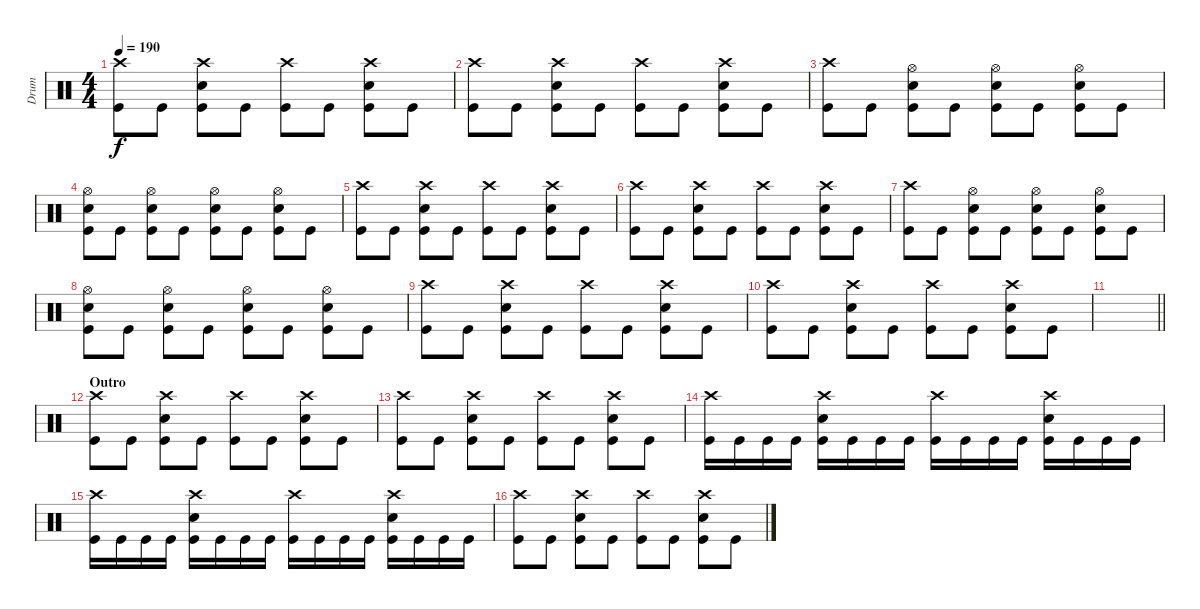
\track ("Drum" "Drum") {instrument percussion}
\staff {score}
\articulation defaults
\ts (4 4)
\tempo 190
\clef neutral
\ks c
("Crash high (hit)" "Kick (hit)").8{dy f} "Kick (hit)".8 ("Crash high (hit)" "Kick (hit)" "Snare (hit) 2").8 "Kick (hit)".8 ("Crash high (hit)" "Kick (hit)").8 "Kick (hit)".8 ("Snare (hit) 2" "Kick (hit)" "Crash high (hit)").8 "Kick (hit)".8 |
("Crash high (hit)" "Kick (hit)").8 "Kick (hit)".8 ("Crash high (hit)" "Kick (hit)" "Snare (hit) 2").8 "Kick (hit)".8 ("Crash high (hit)" "Kick (hit)").8 "Kick (hit)".8 ("Snare (hit) 2" "Kick (hit)" "Crash high (hit)").8 "Kick (hit)".8 |
("Crash high (hit)" "Kick (hit)").8 "Kick (hit)".8 ("Hi-Hat (open)" "Snare (hit) 2" "Kick (hit)").8 "Kick (hit)".8 ("Hi-Hat (open)" "Snare (hit) 2" "Kick (hit)").8 "Kick (hit)".8 ("Hi-Hat (open)" "Snare (hit) 2" "Kick (hit)").8 "Kick (hit)".8 |
("Hi-Hat (open)" "Snare (hit) 2" "Kick (hit)").8 "Kick (hit)".8 ("Hi-Hat (open)" "Snare (hit) 2" "Kick (hit)").8 "Kick (hit)".8 ("Hi-Hat (open)" "Snare (hit) 2" "Kick (hit)").8 "Kick (hit)".8 ("Hi-Hat (open)" "Snare (hit) 2" "Kick (hit)").8 "Kick (hit)".8 |
("Crash high (hit)" "Kick (hit)").8 "Kick (hit)".8 ("Crash high (hit)" "Kick (hit)" "Snare (hit) 2").8 "Kick (hit)".8 ("Crash high (hit)" "Kick (hit)").8 "Kick (hit)".8 ("Snare (hit) 2" "Kick (hit)" "Crash high (hit)").8 "Kick (hit)".8 |
("Crash high (hit)" "Kick (hit)").8 "Kick (hit)".8 ("Crash high (hit)" "Kick (hit)" "Snare (hit) 2").8 "Kick (hit)".8 ("Crash high (hit)" "Kick (hit)").8 "Kick (hit)".8 ("Snare (hit) 2" "Kick (hit)" "Crash high (hit)").8 "Kick (hit)".8 |
("Crash high (hit)" "Kick (hit)").8 "Kick (hit)".8 ("Hi-Hat (open)" "Snare (hit) 2" "Kick (hit)").8 "Kick (hit)".8 ("Hi-Hat (open)" "Snare (hit) 2" "Kick (hit)").8 "Kick (hit)".8 ("Hi-Hat (open)" "Snare (hit) 2" "Kick (hit)").8 "Kick (hit)".8 |
("Hi-Hat (open)" "Snare (hit) 2" "Kick (hit)").8 "Kick (hit)".8 ("Hi-Hat (open)" "Snare (hit) 2" "Kick (hit)").8 "Kick (hit)".8 ("Hi-Hat (open)" "Snare (hit) 2" "Kick (hit)").8 "Kick (hit)".8 ("Hi-Hat (open)" "Snare (hit) 2" "Kick (hit)").8 "Kick (hit)".8 |
("Crash high (hit)" "Kick (hit)").8 "Kick (hit)".8 ("Crash high (hit)" "Kick (hit)" "Snare (hit) 2").8 "Kick (hit)".8 ("Crash high (hit)" "Kick (hit)").8 "Kick (hit)".8 ("Snare (hit) 2" "Kick (hit)" "Crash high (hit)").8 "Kick (hit)".8 |
("Crash high (hit)" "Kick (hit)").8 "Kick (hit)".8 ("Crash high (hit)" "Kick (hit)" "Snare (hit) 2").8 "Kick (hit)".8 ("Crash high (hit)" "Kick (hit)").8 "Kick (hit)".8 ("Snare (hit) 2" "Kick (hit)" "Crash high (hit)").8 "Kick (hit)".8 |
\barLineRight lightlight
|
\section ("" "Outro")
("Crash high (hit)" "Kick (hit)").8 "Kick (hit)".8 ("Crash high (hit)" "Kick (hit)" "Snare (hit) 2").8 "Kick (hit)".8 ("Crash high (hit)" "Kick (hit)").8 "Kick (hit)".8 ("Snare (hit) 2" "Kick (hit)" "Crash high (hit)").8 "Kick (hit)".8 |
("Crash high (hit)" "Kick (hit)").8 "Kick (hit)".8 ("Crash high (hit)" "Kick (hit)" "Snare (hit) 2").8 "Kick (hit)".8 ("Crash high (hit)" "Kick (hit)").8 "Kick (hit)".8 ("Snare (hit) 2" "Kick (hit)" "Crash high (hit)").8 "Kick (hit)".8 |
("Crash high (hit)" "Kick (hit)").16 "Kick (hit)".16 "Kick (hit)".16 "Kick (hit)".16 ("Snare (hit) 2" "Crash high (hit)" "Kick (hit)").16 "Kick (hit)".16 "Kick (hit)".16 "Kick (hit)".16 ("Crash high (hit)" "Kick (hit)").16 "Kick (hit)".16 "Kick (hit)".16 "Kick (hit)".16 ("Snare (hit) 2" "Crash high (hit)" "Kick (hit)").16 "Kick (hit)".16 "Kick (hit)".16 "Kick (hit)".16 |
("Crash high (hit)" "Kick (hit)").16 "Kick (hit)".16 "Kick (hit)".16 "Kick (hit)".16 ("Snare (hit) 2" "Crash high (hit)" "Kick (hit)").16 "Kick (hit)".16 "Kick (hit)".16 "Kick (hit)".16 ("Crash high (hit)" "Kick (hit)").16 "Kick (hit)".16 "Kick (hit)".16 "Kick (hit)".16 ("Snare (hit) 2" "Crash high (hit)" "Kick (hit)").16 "Kick (hit)".16 "Kick (hit)".16 "Kick (hit)".16 |
("Crash high (hit)" "Kick (hit)").8 "Kick (hit)".8 ("Crash high (hit)" "Kick (hit)" "Snare (hit) 2").8 "Kick (hit)".8 ("Crash high (hit)" "Kick (hit)").8 "Kick (hit)".8 ("Snare (hit) 2" "Kick (hit)" "Crash high (hit)").8 "Kick (hit)".8
